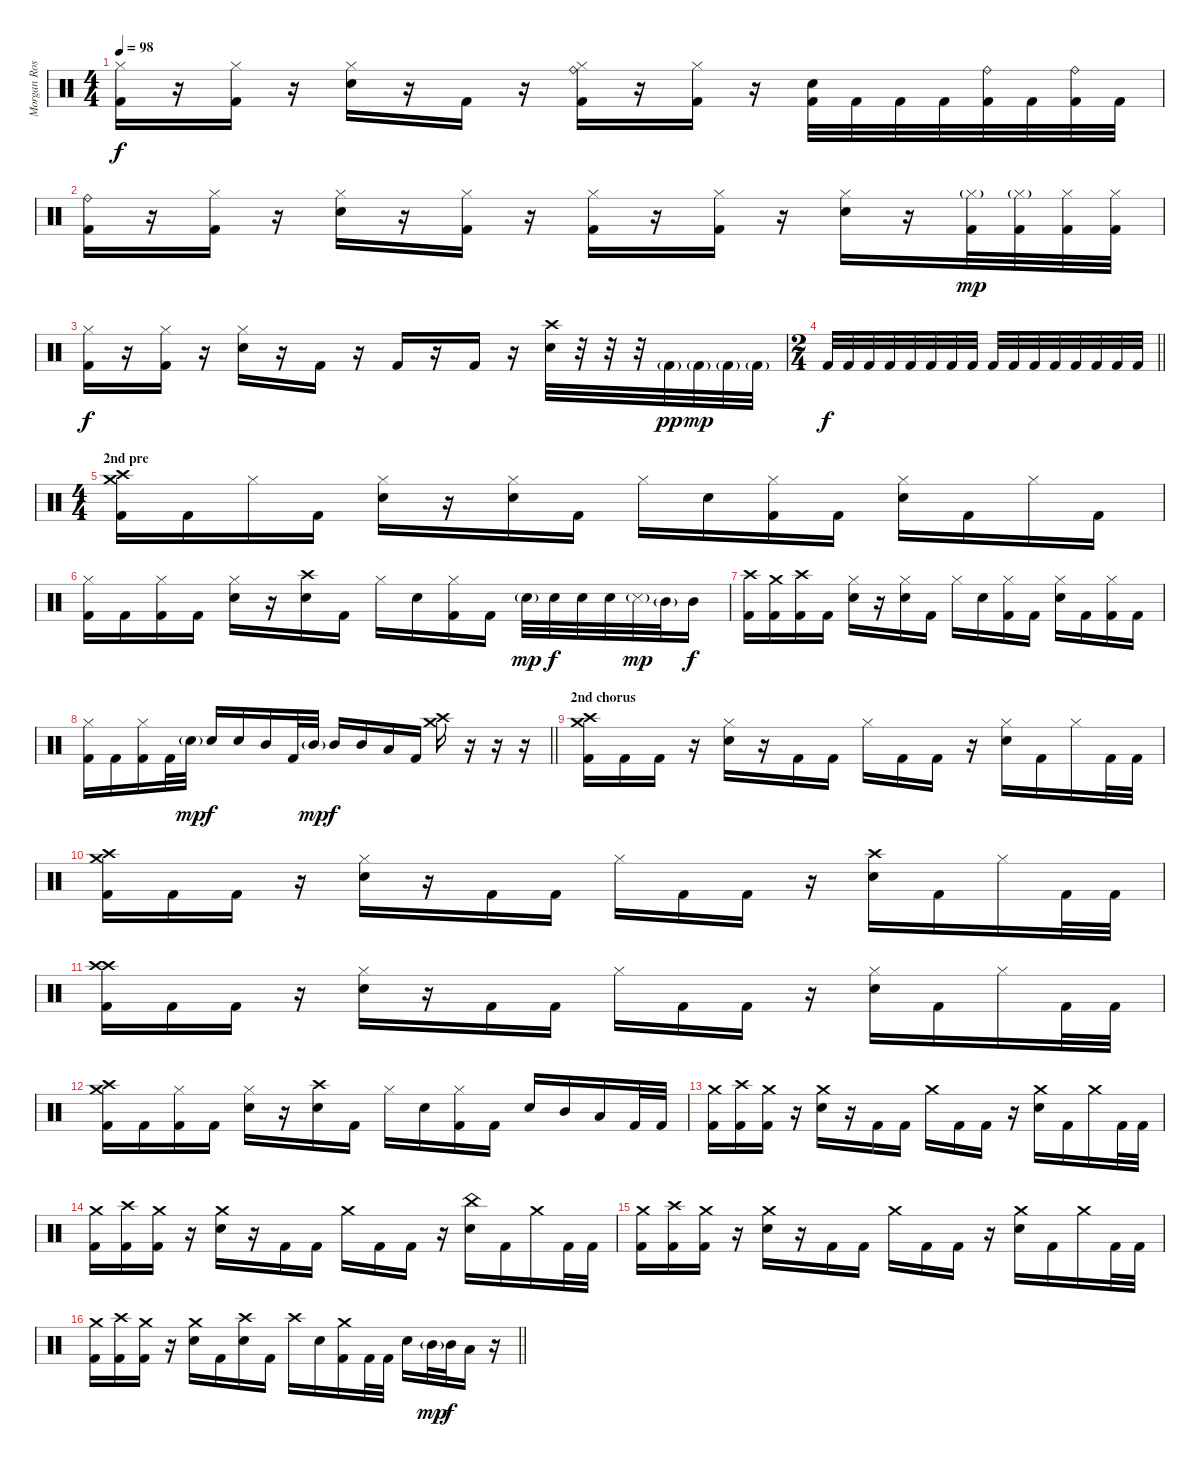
\track ("Morgan Rose" "Morgan Ros") {instrument percussion}
\staff {score}
\articulation defaults
\ts (4 4)
\tempo 98
\clef neutral
\ks c
("Hi-Hat (closed)" "Kick (hit) 2").16{dy f} r.16 ("Hi-Hat (closed)" "Kick (hit) 2").16 r.16 ("Hi-Hat (closed)" "Snare (hit) 2").16 r.16 "Kick (hit) 2".16 r.16 ("Ride (bell)" "Hi-Hat (closed)" "Kick (hit) 2").16 r.16 ("Hi-Hat (closed)" "Kick (hit) 2").16 r.16 ("Snare (hit) 2" "Kick (hit) 2").32 "Kick (hit) 2".32 "Kick (hit) 2".32 "Kick (hit) 2".32 ("Ride (bell)" "Kick (hit) 2").32 "Kick (hit) 2".32 ("Ride (bell)" "Kick (hit) 2").32 "Kick (hit) 2".32 |
("Ride (bell)" "Kick (hit) 2").16 r.16 ("Hi-Hat (closed)" "Kick (hit) 2").16 r.16 ("Hi-Hat (closed)" "Snare (hit) 2").16 r.16 ("Hi-Hat (closed)" "Kick (hit) 2").16 r.16 ("Hi-Hat (closed)" "Kick (hit) 2").16 r.16 ("Hi-Hat (closed)" "Kick (hit) 2").16 r.16 ("Hi-Hat (closed)" "Snare (hit) 2").16 r.16 ("Hi-Hat (closed)"{g} "Kick (hit) 2").32{dy mp} ("Hi-Hat (closed)"{g} "Kick (hit) 2").32 ("Hi-Hat (closed)" "Kick (hit) 2").32 ("Hi-Hat (closed)" "Kick (hit) 2").32 |
("Hi-Hat (closed)" "Kick (hit) 2").16{dy f} r.16 ("Hi-Hat (closed)" "Kick (hit) 2").16 r.16 ("Hi-Hat (closed)" "Snare (hit) 2").16 r.16 "Kick (hit) 2".16 r.16 "Kick (hit) 2".16 r.16 "Kick (hit) 2".16 r.16 ("Crash high (hit)" "Snare (hit) 2").32 r.32 r.32 r.32 "Kick (hit) 2"{g}.32{dy pp} "Kick (hit) 2"{g}.32{dy mp} "Kick (hit) 2"{g}.32 "Kick (hit) 2"{g}.32 |
\ts (2 4)
\barLineRight lightlight "Kick (hit) 2".32{dy f} "Kick (hit) 2".32 "Kick (hit) 2".32 "Kick (hit) 2".32 "Kick (hit) 2".32 "Kick (hit) 2".32 "Kick (hit) 2".32 "Kick (hit) 2".32 "Kick (hit) 2".32 "Kick (hit) 2".32 "Kick (hit) 2".32 "Kick (hit) 2".32 "Kick (hit) 2".32 "Kick (hit) 2".32 "Kick (hit) 2".32 "Kick (hit) 2".32
|
\ts (4 4)
\section ("" "2nd pre")
("Crash medium (hit)" "Crash high (hit)" "Kick (hit) 2").16 "Kick (hit) 2".16 "Hi-Hat (closed)".16 "Kick (hit) 2".16 ("Hi-Hat (closed)" "Snare (hit) 2").16 r.16 ("Hi-Hat (closed)" "Snare (hit) 2").16 "Kick (hit) 2".16 "Hi-Hat (closed)".16 "Snare (hit) 2".16 ("Hi-Hat (closed)" "Kick (hit) 2").16 "Kick (hit) 2".16 ("Hi-Hat (closed)" "Snare (hit) 2").16 "Kick (hit) 2".16 "Hi-Hat (closed)".16 "Kick (hit) 2".16 |
("Hi-Hat (closed)" "Kick (hit) 2").16 "Kick (hit) 2".16 ("Hi-Hat (closed)" "Kick (hit) 2").16 "Kick (hit) 2".16 ("Hi-Hat (closed)" "Snare (hit) 2").16 r.16 ("Crash high (hit)" "Snare (hit) 2").16 "Kick (hit) 2".16 "Hi-Hat (closed)".16 "Snare (hit) 2".16 ("Hi-Hat (closed)" "Kick (hit) 2").16 "Kick (hit) 2".16 "Snare (hit) 2"{g}.32{dy mp} "Snare (hit) 2".32{dy f} "Snare (hit) 2".32 "Snare (hit) 2".32 "Snare (side stick) 3"{g}.32{dy mp} "Mid Tom (hit)"{g}.32 "Mid Tom (hit)".16{dy f} |
("Crash high (hit)" "Kick (hit) 2").16 ("Crash medium (hit)" "Kick (hit) 2").16 ("Crash high (hit)" "Kick (hit) 2").16 "Kick (hit) 2".16 ("Hi-Hat (closed)" "Snare (hit) 2").16 r.16 ("Hi-Hat (closed)" "Snare (hit) 2").16 "Kick (hit) 2".16 "Hi-Hat (closed)".16 "Snare (hit) 2".16 ("Hi-Hat (closed)" "Kick (hit) 2").16 "Kick (hit) 2".16 ("Hi-Hat (closed)" "Snare (hit) 2").16 "Kick (hit) 2".16 ("Hi-Hat (closed)" "Kick (hit) 2").16 "Kick (hit) 2".16 |
\barLineRight lightlight
("Hi-Hat (closed)" "Kick (hit) 2").16 "Kick (hit) 2".16 ("Hi-Hat (closed)" "Kick (hit) 2").16 "Kick (hit) 2".32 "Snare (hit) 2"{g}.32{dy mp} "Snare (hit) 2".16{dy f} "Snare (hit) 2".16 "Mid Tom (hit)".16 "Kick (hit) 2".32 "Mid Tom (hit)"{g}.32{dy mp} "Mid Tom (hit)".16{dy f} "Mid Tom (hit)".16 "Low Tom (hit)".16 "Kick (hit) 2".16 ("Crash medium (hit)" "Crash high (hit)").16 r.16 r.16 r.16 |
\section ("" "2nd chorus")
("Crash medium (hit)" "Crash high (hit)" "Kick (hit) 2").16 "Kick (hit) 2".16 "Kick (hit) 2".16 r.16 ("Hi-Hat (closed)" "Snare (hit) 2").16 r.16 "Kick (hit) 2".16 "Kick (hit) 2".16 "Hi-Hat (closed)".16 "Kick (hit) 2".16 "Kick (hit) 2".16 r.16 ("Hi-Hat (closed)" "Snare (hit) 2").16 "Kick (hit) 2".16 "Hi-Hat (closed)".16 "Kick (hit) 2".32 "Kick (hit) 2".32 |
("Crash medium (hit)" "Crash high (hit)" "Kick (hit) 2").16 "Kick (hit) 2".16 "Kick (hit) 2".16 r.16 ("Hi-Hat (closed)" "Snare (hit) 2").16 r.16 "Kick (hit) 2".16 "Kick (hit) 2".16 "Hi-Hat (closed)".16 "Kick (hit) 2".16 "Kick (hit) 2".16 r.16 ("Crash high (hit)" "Snare (hit) 2").16 "Kick (hit) 2".16 "Hi-Hat (closed)".16 "Kick (hit) 2".32 "Kick (hit) 2".32 |
("Crash high (hit)" "Crash high (hit)" "Kick (hit) 2").16 "Kick (hit) 2".16 "Kick (hit) 2".16 r.16 ("Hi-Hat (closed)" "Snare (hit) 2").16 r.16 "Kick (hit) 2".16 "Kick (hit) 2".16 "Hi-Hat (closed)".16 "Kick (hit) 2".16 "Kick (hit) 2".16 r.16 ("Hi-Hat (closed)" "Snare (hit) 2").16 "Kick (hit) 2".16 "Hi-Hat (closed)".16 "Kick (hit) 2".32 "Kick (hit) 2".32 |
("Crash medium (hit)" "Crash high (hit)" "Kick (hit) 2").16 "Kick (hit) 2".16 ("Hi-Hat (closed)" "Kick (hit) 2").16 "Kick (hit) 2".16 ("Hi-Hat (closed)" "Snare (hit) 2").16 r.16 ("Crash high (hit)" "Snare (hit) 2").16 "Kick (hit) 2".16 "Hi-Hat (closed)".16 "Snare (hit) 2".16 ("Hi-Hat (closed)" "Kick (hit) 2").16 "Kick (hit) 2".16 "Snare (hit) 2".16 "Mid Tom (hit)".16 "Low Tom (hit)".16 "Kick (hit) 2".32 "Kick (hit) 2".32 |
("Crash medium (hit)" "Kick (hit) 2").16 ("Crash high (hit)" "Kick (hit) 2").16 ("Crash medium (hit)" "Kick (hit) 2").16 r.16 ("Crash medium (hit)" "Snare (hit) 2").16 r.16 "Kick (hit) 2".16 "Kick (hit) 2".16 "Crash medium (hit)".16 "Kick (hit) 2".16 "Kick (hit) 2".16 r.16 ("Crash medium (hit)" "Snare (hit) 2").16 "Kick (hit) 2".16 "Crash medium (hit)".16 "Kick (hit) 2".32 "Kick (hit) 2".32 |
("Crash medium (hit)" "Kick (hit) 2").16 ("Crash high (hit)" "Kick (hit) 2").16 ("Crash medium (hit)" "Kick (hit) 2").16 r.16 ("Crash medium (hit)" "Snare (hit) 2").16 r.16 "Kick (hit) 2".16 "Kick (hit) 2".16 "Crash medium (hit)".16 "Kick (hit) 2".16 "Kick (hit) 2".16 r.16 ("China (hit)" "Snare (hit) 2").16 "Kick (hit) 2".16 "Crash medium (hit)".16 "Kick (hit) 2".32 "Kick (hit) 2".32 |
("Crash medium (hit)" "Kick (hit) 2").16 ("Crash high (hit)" "Kick (hit) 2").16 ("Crash medium (hit)" "Kick (hit) 2").16 r.16 ("Crash medium (hit)" "Snare (hit) 2").16 r.16 "Kick (hit) 2".16 "Kick (hit) 2".16 "Crash medium (hit)".16 "Kick (hit) 2".16 "Kick (hit) 2".16 r.16 ("Crash medium (hit)" "Snare (hit) 2").16 "Kick (hit) 2".16 "Crash medium (hit)".16 "Kick (hit) 2".32 "Kick (hit) 2".32 |
\barLineRight lightlight
("Crash medium (hit)" "Kick (hit) 2").16 ("Crash high (hit)" "Kick (hit) 2").16 ("Crash medium (hit)" "Kick (hit) 2").16 r.16 ("Crash medium (hit)" "Snare (hit) 2").16 "Kick (hit) 2".16 ("Crash high (hit)" "Snare (hit) 2").16 "Kick (hit) 2".16 "Crash high (hit)".16 "Snare (hit) 2".16 ("Crash medium (hit)" "Kick (hit) 2").16 "Kick (hit) 2".32 "Kick (hit) 2".32 "Snare (hit) 2".16 "Mid Tom (hit)"{g}.32{dy mp} "Mid Tom (hit)".32{dy f} "Low Tom (hit)".16 r.16
